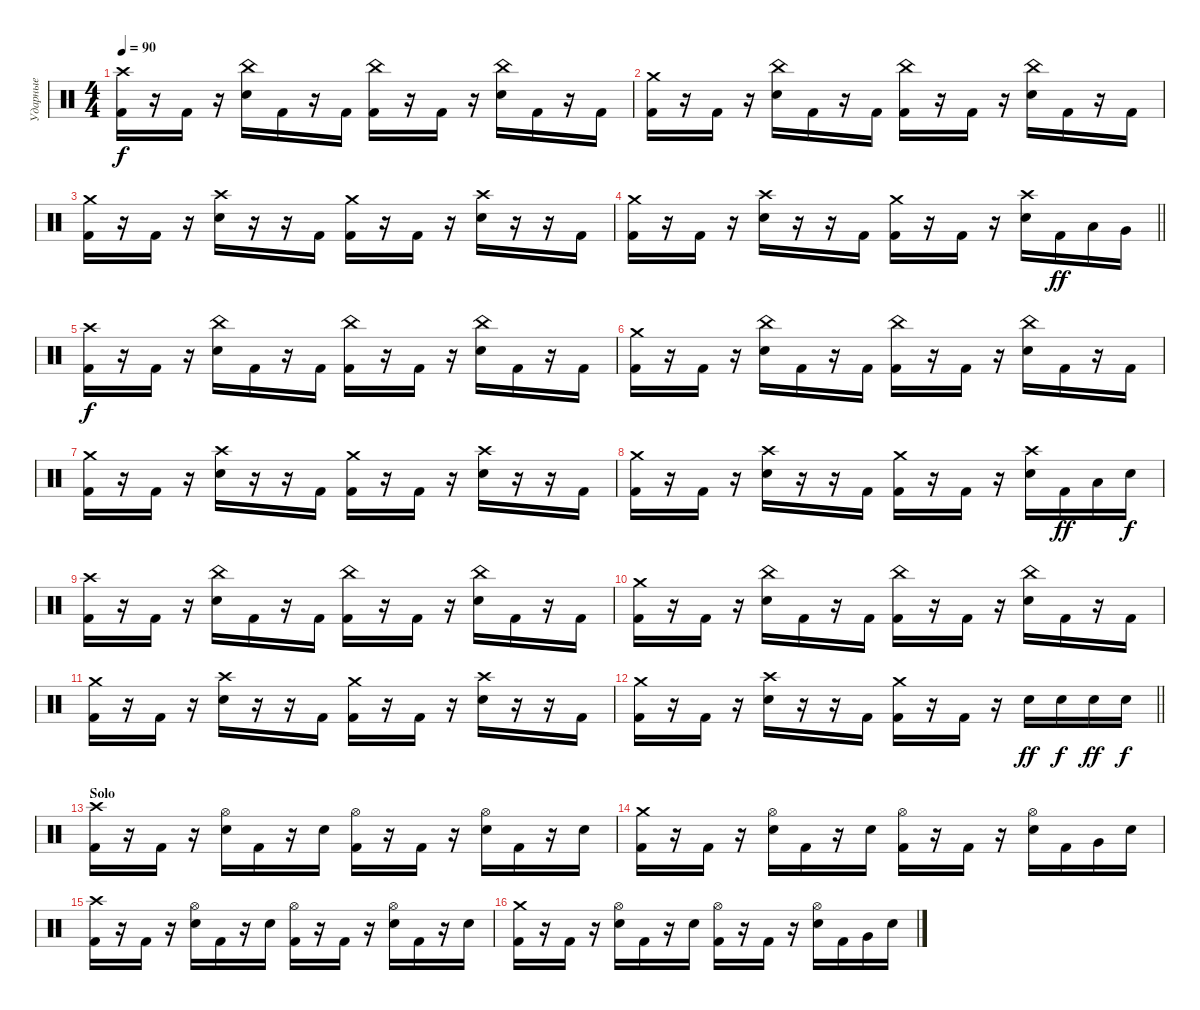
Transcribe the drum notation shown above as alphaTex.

\track ("Ударные" "Ударные") {instrument percussion}
\staff {score}
\articulation defaults
\ts (4 4)
\tempo 90
\clef neutral
\ks c
("Crash high (hit)" "Kick (hit) 2").16{dy f} r.16 "Kick (hit) 2".16 r.16 ("China (hit)" "Electric Snare (hit)").16 "Kick (hit) 2".16 r.16 "Kick (hit) 2".16 ("China (hit)" "Kick (hit) 2").16 r.16 "Kick (hit) 2".16 r.16 ("China (hit)" "Electric Snare (hit)").16 "Kick (hit) 2".16 r.16 "Kick (hit) 2".16 |
("Crash medium (hit)" "Kick (hit) 2").16 r.16 "Kick (hit) 2".16 r.16 ("China (hit)" "Electric Snare (hit)").16 "Kick (hit) 2".16 r.16 "Kick (hit) 2".16 ("China (hit)" "Kick (hit) 2").16 r.16 "Kick (hit) 2".16 r.16 ("China (hit)" "Electric Snare (hit)").16 "Kick (hit) 2".16 r.16 "Kick (hit) 2".16 |
("Crash medium (hit)" "Kick (hit) 2").16 r.16 "Kick (hit) 2".16 r.16 ("Crash high (hit)" "Electric Snare (hit)").16 r.16 r.16 "Kick (hit) 2".16 ("Crash medium (hit)" "Kick (hit) 2").16 r.16 "Kick (hit) 2".16 r.16 ("Crash high (hit)" "Electric Snare (hit)").16 r.16 r.16 "Kick (hit) 2".16 |
\barLineRight lightlight
("Crash medium (hit)" "Kick (hit) 2").16 r.16 "Kick (hit) 2".16 r.16 ("Crash high (hit)" "Electric Snare (hit)").16 r.16 r.16 "Kick (hit) 2".16 ("Crash medium (hit)" "Kick (hit) 2").16 r.16 "Kick (hit) 2".16 r.16 ("Crash high (hit)" "Electric Snare (hit)").16 "Kick (hit) 2".16{dy ff} "Low Tom (hit)".16 "Very Low Tom (hit)".16 |
("Crash high (hit)" "Kick (hit) 2").16{dy f} r.16 "Kick (hit) 2".16 r.16 ("China (hit)" "Electric Snare (hit)").16 "Kick (hit) 2".16 r.16 "Kick (hit) 2".16 ("China (hit)" "Kick (hit) 2").16 r.16 "Kick (hit) 2".16 r.16 ("China (hit)" "Electric Snare (hit)").16 "Kick (hit) 2".16 r.16 "Kick (hit) 2".16 |
("Crash medium (hit)" "Kick (hit) 2").16 r.16 "Kick (hit) 2".16 r.16 ("China (hit)" "Electric Snare (hit)").16 "Kick (hit) 2".16 r.16 "Kick (hit) 2".16 ("China (hit)" "Kick (hit) 2").16 r.16 "Kick (hit) 2".16 r.16 ("China (hit)" "Electric Snare (hit)").16 "Kick (hit) 2".16 r.16 "Kick (hit) 2".16 |
("Crash medium (hit)" "Kick (hit) 2").16 r.16 "Kick (hit) 2".16 r.16 ("Crash high (hit)" "Electric Snare (hit)").16 r.16 r.16 "Kick (hit) 2".16 ("Crash medium (hit)" "Kick (hit) 2").16 r.16 "Kick (hit) 2".16 r.16 ("Crash high (hit)" "Electric Snare (hit)").16 r.16 r.16 "Kick (hit) 2".16 |
("Crash medium (hit)" "Kick (hit) 2").16 r.16 "Kick (hit) 2".16 r.16 ("Crash high (hit)" "Electric Snare (hit)").16 r.16 r.16 "Kick (hit) 2".16 ("Crash medium (hit)" "Kick (hit) 2").16 r.16 "Kick (hit) 2".16 r.16 ("Crash high (hit)" "Electric Snare (hit)").16 "Kick (hit) 2".16{dy ff} "Low Tom (hit)".16 "Electric Snare (hit)".16{dy f} |
("Crash high (hit)" "Kick (hit) 2").16 r.16 "Kick (hit) 2".16 r.16 ("China (hit)" "Electric Snare (hit)").16 "Kick (hit) 2".16 r.16 "Kick (hit) 2".16 ("China (hit)" "Kick (hit) 2").16 r.16 "Kick (hit) 2".16 r.16 ("China (hit)" "Electric Snare (hit)").16 "Kick (hit) 2".16 r.16 "Kick (hit) 2".16 |
("Crash medium (hit)" "Kick (hit) 2").16 r.16 "Kick (hit) 2".16 r.16 ("China (hit)" "Electric Snare (hit)").16 "Kick (hit) 2".16 r.16 "Kick (hit) 2".16 ("China (hit)" "Kick (hit) 2").16 r.16 "Kick (hit) 2".16 r.16 ("China (hit)" "Electric Snare (hit)").16 "Kick (hit) 2".16 r.16 "Kick (hit) 2".16 |
("Crash medium (hit)" "Kick (hit) 2").16 r.16 "Kick (hit) 2".16 r.16 ("Crash high (hit)" "Electric Snare (hit)").16 r.16 r.16 "Kick (hit) 2".16 ("Crash medium (hit)" "Kick (hit) 2").16 r.16 "Kick (hit) 2".16 r.16 ("Crash high (hit)" "Electric Snare (hit)").16 r.16 r.16 "Kick (hit) 2".16 |
\barLineRight lightlight
("Crash medium (hit)" "Kick (hit) 2").16 r.16 "Kick (hit) 2".16 r.16 ("Crash high (hit)" "Electric Snare (hit)").16 r.16 r.16 "Kick (hit) 2".16 ("Crash medium (hit)" "Kick (hit) 2").16 r.16 "Kick (hit) 2".16 r.16 "Electric Snare (hit)".16{dy ff} "Electric Snare (hit)".16{dy f} "Electric Snare (hit)".16{dy ff} "Electric Snare (hit)".16{dy f} |
\section ("" "Solo")
("Crash high (hit)" "Kick (hit) 2").16 r.16 "Kick (hit) 2".16 r.16 ("Hi-Hat (open)" "Electric Snare (hit)").16 "Kick (hit) 2".16 r.16 "Electric Snare (hit)".16 ("Hi-Hat (open)" "Kick (hit) 2").16 r.16 "Kick (hit) 2".16 r.16 ("Hi-Hat (open)" "Electric Snare (hit)").16 "Kick (hit) 2".16 r.16 "Electric Snare (hit)".16 |
("Crash medium (hit)" "Kick (hit) 2").16 r.16 "Kick (hit) 2".16 r.16 ("Hi-Hat (open)" "Electric Snare (hit)").16 "Kick (hit) 2".16 r.16 "Electric Snare (hit)".16 ("Hi-Hat (open)" "Kick (hit) 2").16 r.16 "Kick (hit) 2".16 r.16 ("Hi-Hat (open)" "Electric Snare (hit)").16 "Kick (hit) 2".16 "Very Low Tom (hit)".16 "Electric Snare (hit)".16 |
("Crash high (hit)" "Kick (hit) 2").16 r.16 "Kick (hit) 2".16 r.16 ("Hi-Hat (open)" "Electric Snare (hit)").16 "Kick (hit) 2".16 r.16 "Electric Snare (hit)".16 ("Hi-Hat (open)" "Kick (hit) 2").16 r.16 "Kick (hit) 2".16 r.16 ("Hi-Hat (open)" "Electric Snare (hit)").16 "Kick (hit) 2".16 r.16 "Electric Snare (hit)".16 |
("Crash medium (hit)" "Kick (hit) 2").16 r.16 "Kick (hit) 2".16 r.16 ("Hi-Hat (open)" "Electric Snare (hit)").16 "Kick (hit) 2".16 r.16 "Electric Snare (hit)".16 ("Hi-Hat (open)" "Kick (hit) 2").16 r.16 "Kick (hit) 2".16 r.16 ("Hi-Hat (open)" "Electric Snare (hit)").16 "Kick (hit) 2".16 "Very Low Tom (hit)".16 "Electric Snare (hit)".16
